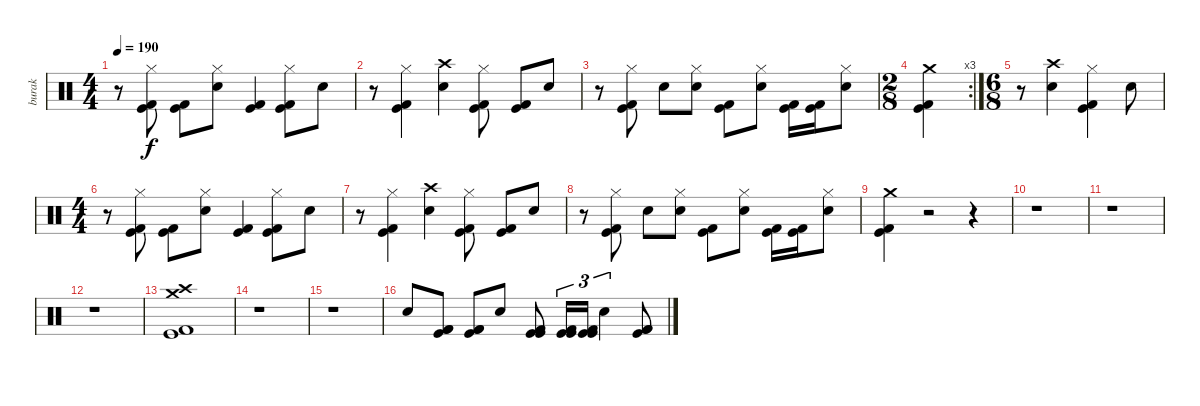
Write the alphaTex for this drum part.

\track ("burak" "burak") {instrument percussion}
\staff {score}
\articulation defaults
\ts (4 4)
\tempo 190
\clef neutral
\ks c
r.8{dy f} ("Hi-Hat (closed)" "Kick (hit)" "Kick (hit) 2").8 ("Kick (hit)" "Kick (hit) 2").8 ("Electric Snare (hit)" "Hi-Hat (closed)").8 ("Kick (hit)" "Kick (hit) 2").4 ("Hi-Hat (closed)" "Kick (hit)" "Kick (hit) 2").8 "Electric Snare (hit)".8 |
r.8 ("Hi-Hat (closed)" "Kick (hit)" "Kick (hit) 2").4 ("Electric Snare (hit)" "Crash high (hit)").4 ("Hi-Hat (closed)" "Kick (hit)" "Kick (hit) 2").8 ("Kick (hit)" "Kick (hit) 2").8 "Electric Snare (hit)".8 |
r.8 ("Hi-Hat (closed)" "Kick (hit)" "Kick (hit) 2").8 "Electric Snare (hit)".8 ("Electric Snare (hit)" "Hi-Hat (closed)").8 ("Kick (hit)" "Kick (hit) 2").8 ("Electric Snare (hit)" "Hi-Hat (closed)").8 ("Kick (hit)" "Kick (hit) 2").16 ("Kick (hit)" "Kick (hit) 2").16 ("Hi-Hat (closed)" "Electric Snare (hit)").8 |
\rc 3
\ts (2 8)
("Crash medium (hit)" "Kick (hit)" "Kick (hit) 2").4 |
\ts (6 8)
r.8 ("Electric Snare (hit)" "Crash high (hit)").4 ("Hi-Hat (closed)" "Kick (hit)" "Kick (hit) 2").4 "Electric Snare (hit)".8 |
\ts (4 4)
r.8 ("Hi-Hat (closed)" "Kick (hit)" "Kick (hit) 2").8 ("Kick (hit)" "Kick (hit) 2").8 ("Electric Snare (hit)" "Hi-Hat (closed)").8 ("Kick (hit)" "Kick (hit) 2").4 ("Hi-Hat (closed)" "Kick (hit)" "Kick (hit) 2").8 "Electric Snare (hit)".8 |
r.8 ("Hi-Hat (closed)" "Kick (hit)" "Kick (hit) 2").4 ("Electric Snare (hit)" "Crash high (hit)").4 ("Hi-Hat (closed)" "Kick (hit)" "Kick (hit) 2").8 ("Kick (hit)" "Kick (hit) 2").8 "Electric Snare (hit)".8 |
r.8 ("Hi-Hat (closed)" "Kick (hit)" "Kick (hit) 2").8 "Electric Snare (hit)".8 ("Electric Snare (hit)" "Hi-Hat (closed)").8 ("Kick (hit)" "Kick (hit) 2").8 ("Electric Snare (hit)" "Hi-Hat (closed)").8 ("Kick (hit)" "Kick (hit) 2").16 ("Kick (hit)" "Kick (hit) 2").16 ("Hi-Hat (closed)" "Electric Snare (hit)").8 |
("Crash medium (hit)" "Kick (hit)" "Kick (hit) 2").4 r.2 r.4 |
r.1 |
r.1 |
r.1 |
("Crash high (hit)" "Crash medium (hit)" "Kick (hit)" "Kick (hit) 2").1 |
r.1 |
r.1 |
"Snare (hit) 2".8 ("Kick (hit) 2" "Kick (hit)" "Kick (hit) 2").8 ("Kick (hit) 2" "Kick (hit)" "Kick (hit) 2").8 "Snare (hit) 2".8 ("Kick (hit)" "Kick (hit)" "Kick (hit) 2").8 ("Kick (hit)" "Kick (hit)" "Kick (hit) 2").16{tu (3 2)} ("Kick (hit)" "Kick (hit)" "Kick (hit) 2").16{tu (3 2)} "Snare (hit) 2".4{tu (3 2)} ("Kick (hit) 2" "Kick (hit)" "Kick (hit) 2").8
